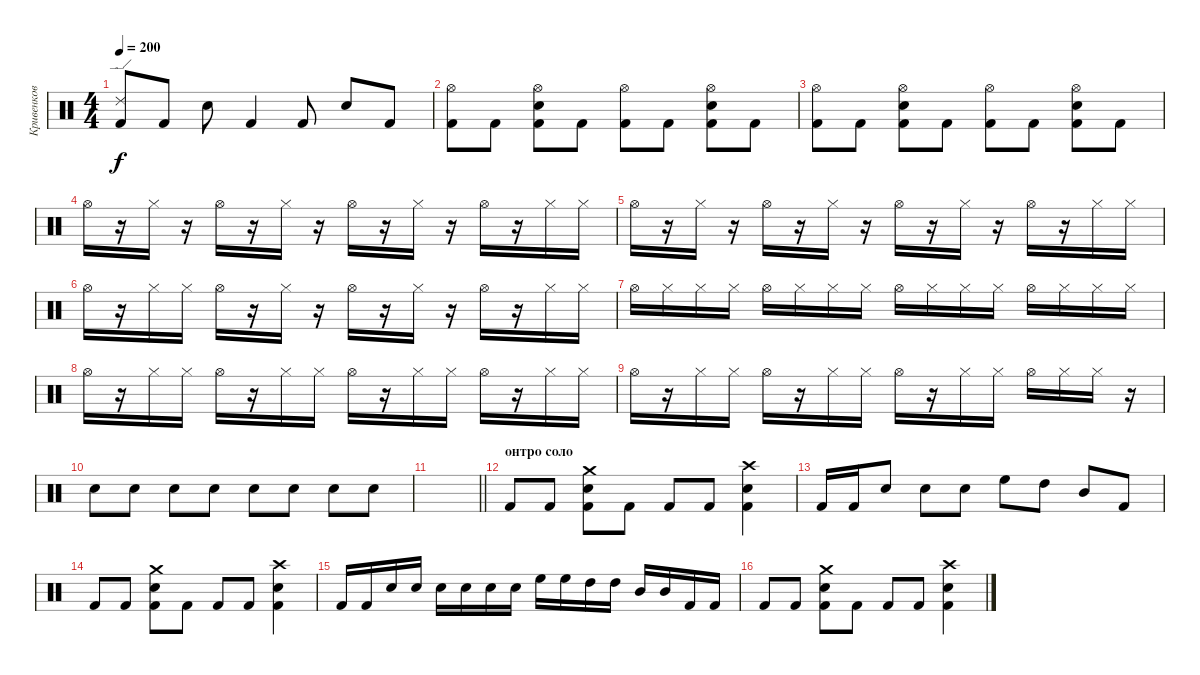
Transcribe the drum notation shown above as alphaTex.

\track ("Кривенков" "Кривенков") {instrument percussion}
\staff {score}
\articulation defaults
\ts (4 4)
\tempo 200
\clef neutral
\ks c
("Ride (edge) 2" "Kick (hit) 2").8{dy f} "Kick (hit) 2".8 "Electric Snare (hit)".8 "Kick (hit) 2".4 "Kick (hit) 2".8 "Electric Snare (hit)".8 "Kick (hit) 2".8 |
("Hi-Hat (open)" "Kick (hit) 2").8 "Kick (hit) 2".8 ("Electric Snare (hit)" "Hi-Hat (open)" "Kick (hit) 2").8 "Kick (hit) 2".8 ("Hi-Hat (open)" "Kick (hit) 2").8 "Kick (hit) 2".8 ("Electric Snare (hit)" "Hi-Hat (open)" "Kick (hit) 2").8 "Kick (hit) 2".8 |
("Hi-Hat (open)" "Kick (hit) 2").8 "Kick (hit) 2".8 ("Electric Snare (hit)" "Hi-Hat (open)" "Kick (hit) 2").8 "Kick (hit) 2".8 ("Hi-Hat (open)" "Kick (hit) 2").8 "Kick (hit) 2".8 ("Electric Snare (hit)" "Hi-Hat (open)" "Kick (hit) 2").8 "Kick (hit) 2".8 |
"Hi-Hat (open)".16 r.16 "Hi-Hat (closed)".16 r.16 "Hi-Hat (open)".16 r.16 "Hi-Hat (closed)".16 r.16 "Hi-Hat (open)".16 r.16 "Hi-Hat (closed)".16 r.16 "Hi-Hat (open)".16 r.16 "Hi-Hat (closed)".16 "Hi-Hat (closed)".16 |
"Hi-Hat (open)".16 r.16 "Hi-Hat (closed)".16 r.16 "Hi-Hat (open)".16 r.16 "Hi-Hat (closed)".16 r.16 "Hi-Hat (open)".16 r.16 "Hi-Hat (closed)".16 r.16 "Hi-Hat (open)".16 r.16 "Hi-Hat (closed)".16 "Hi-Hat (closed)".16 |
"Hi-Hat (open)".16 r.16 "Hi-Hat (closed)".16 "Hi-Hat (closed)".16 "Hi-Hat (open)".16 r.16 "Hi-Hat (closed)".16 r.16 "Hi-Hat (open)".16 r.16 "Hi-Hat (closed)".16 r.16 "Hi-Hat (open)".16 r.16 "Hi-Hat (closed)".16 "Hi-Hat (closed)".16 |
"Hi-Hat (open)".16 "Hi-Hat (closed)".16 "Hi-Hat (closed)".16 "Hi-Hat (closed)".16 "Hi-Hat (open)".16 "Hi-Hat (closed)".16 "Hi-Hat (closed)".16 "Hi-Hat (closed)".16 "Hi-Hat (open)".16 "Hi-Hat (closed)".16 "Hi-Hat (closed)".16 "Hi-Hat (closed)".16 "Hi-Hat (open)".16 "Hi-Hat (closed)".16 "Hi-Hat (closed)".16 "Hi-Hat (closed)".16 |
"Hi-Hat (open)".16 r.16 "Hi-Hat (closed)".16 "Hi-Hat (closed)".16 "Hi-Hat (open)".16 r.16 "Hi-Hat (closed)".16 "Hi-Hat (closed)".16 "Hi-Hat (open)".16 r.16 "Hi-Hat (closed)".16 "Hi-Hat (closed)".16 "Hi-Hat (open)".16 r.16 "Hi-Hat (closed)".16 "Hi-Hat (closed)".16 |
"Hi-Hat (open)".16 r.16 "Hi-Hat (closed)".16 "Hi-Hat (closed)".16 "Hi-Hat (open)".16 r.16 "Hi-Hat (closed)".16 "Hi-Hat (closed)".16 "Hi-Hat (open)".16 r.16 "Hi-Hat (closed)".16 "Hi-Hat (closed)".16 "Hi-Hat (open)".16 "Hi-Hat (closed)".16 "Hi-Hat (closed)".16 r.16 |
"Electric Snare (hit)".8 "Electric Snare (hit)".8 "Electric Snare (hit)".8 "Electric Snare (hit)".8 "Electric Snare (hit)".8 "Electric Snare (hit)".8 "Electric Snare (hit)".8 "Electric Snare (hit)".8 |
\barLineRight lightlight
|
\section ("" "онтро соло")
"Kick (hit) 2".8 "Kick (hit) 2".8 ("Crash medium (hit)" "Electric Snare (hit)" "Kick (hit) 2").8 "Kick (hit) 2".8 "Kick (hit) 2".8 "Kick (hit) 2".8 ("Crash high (hit)" "Electric Snare (hit)" "Kick (hit) 2").4 |
"Kick (hit) 2".16 "Kick (hit) 2".16 "Electric Snare (hit)".8 "Electric Snare (hit)".8 "Electric Snare (hit)".8 "High Floor Tom (hit)".8 "High Tom (hit)".8 "Mid Tom (hit)".8 "Kick (hit) 2".8 |
"Kick (hit) 2".8 "Kick (hit) 2".8 ("Crash medium (hit)" "Electric Snare (hit)" "Kick (hit) 2").8 "Kick (hit) 2".8 "Kick (hit) 2".8 "Kick (hit) 2".8 ("Crash high (hit)" "Electric Snare (hit)" "Kick (hit) 2").4 |
"Kick (hit) 2".16 "Kick (hit) 2".16 "Electric Snare (hit)".16 "Electric Snare (hit)".16 "Electric Snare (hit)".16 "Electric Snare (hit)".16 "Electric Snare (hit)".16 "Electric Snare (hit)".16 "High Floor Tom (hit)".16 "High Floor Tom (hit)".16 "High Tom (hit)".16 "High Tom (hit)".16 "Mid Tom (hit)".16 "Mid Tom (hit)".16 "Kick (hit) 2".16 "Kick (hit) 2".16 |
"Kick (hit) 2".8 "Kick (hit) 2".8 ("Crash medium (hit)" "Electric Snare (hit)" "Kick (hit) 2").8 "Kick (hit) 2".8 "Kick (hit) 2".8 "Kick (hit) 2".8 ("Crash high (hit)" "Electric Snare (hit)" "Kick (hit) 2").4
